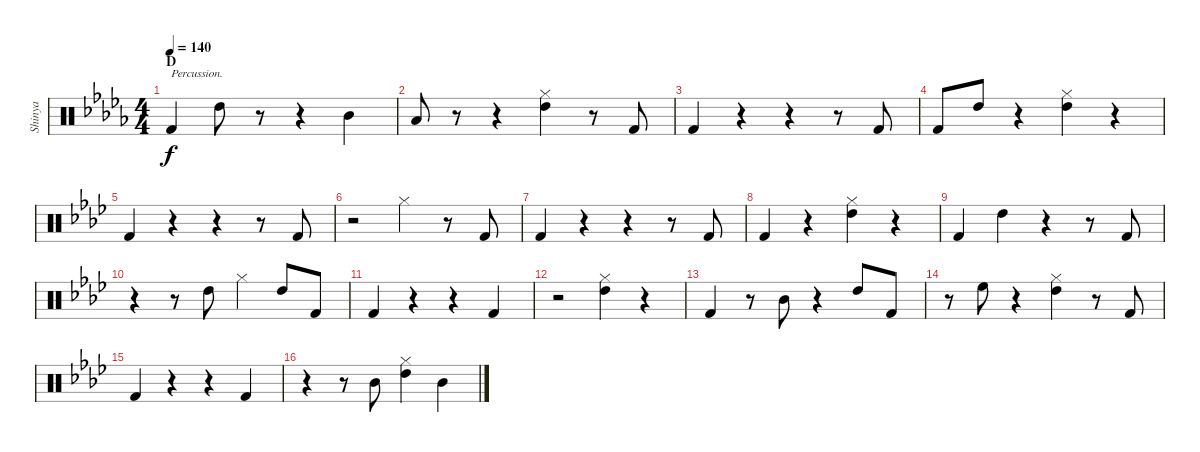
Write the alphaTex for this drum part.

\track ("Shinya" "Shinya") {instrument percussion}
\staff {score}
\articulation defaults
\ts (4 4)
\section ("" "D")
\tempo 140
\clef neutral
\ks db "Kick (hit) 2".4{txt "Percussion." dy f} "High Tom (hit)".8
r.8 r.4 "Mid Tom (hit)".4 |
"Low Tom (hit)".8 r.8 r.4 ("Hi-Hat (closed)" "High Tom (hit)").4 r.8 "Kick (hit) 2".8 |
"Kick (hit) 2".4 r.4 r.4 r.8 "Kick (hit) 2".8 |
"Kick (hit) 2".8 "High Tom (hit)".8 r.4 ("Hi-Hat (closed)" "High Tom (hit)").4 r.4 |
\ks ab "Kick (hit) 2".4
r.4 r.4 r.8 "Kick (hit) 2".8 |
r.2 "Hi-Hat (closed)".4 r.8 "Kick (hit) 2".8 |
"Kick (hit) 2".4 r.4 r.4 r.8 "Kick (hit) 2".8 |
"Kick (hit) 2".4 r.4 ("Hi-Hat (closed)" "High Tom (hit)").4 r.4 |
"Kick (hit) 2".4 "High Tom (hit)".4 r.4 r.8 "Kick (hit) 2".8 |
r.4 r.8 "High Tom (hit)".8 "Hi-Hat (closed)".4 "High Tom (hit)".8 "Kick (hit) 2".8 |
"Kick (hit) 2".4 r.4 r.4 "Kick (hit) 2".4 |
r.2 ("Hi-Hat (closed)" "High Tom (hit)").4 r.4 |
"Kick (hit) 2".4 r.8 "Mid Tom (hit)".8 r.4 "High Tom (hit)".8 "Kick (hit) 2".8 |
r.8 "High Floor Tom (hit)".8 r.4 ("Hi-Hat (closed)" "High Tom (hit)").4 r.8 "Kick (hit) 2".8 |
"Kick (hit) 2".4 r.4 r.4 "Kick (hit) 2".4 |
r.4 r.8 "Mid Tom (hit)".8 ("Hi-Hat (closed)" "High Tom (hit)").4 "Mid Tom (hit)".4
